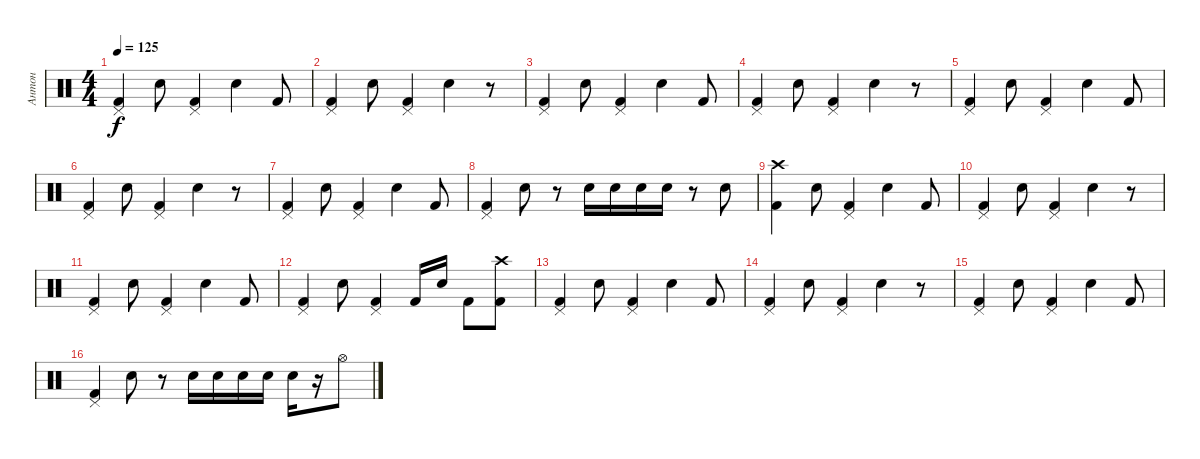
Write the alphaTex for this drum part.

\track ("Антон" "Антон") {instrument percussion}
\staff {score}
\articulation defaults
\ts (4 4)
\tempo 125
\clef neutral
\ks c
("Pedal Hi-Hat (hit)" "Kick (hit) 2").4{dy f} "Electric Snare (hit)".8 ("Pedal Hi-Hat (hit)" "Kick (hit) 2").4 "Electric Snare (hit)".4 "Kick (hit) 2".8 |
("Pedal Hi-Hat (hit)" "Kick (hit) 2").4 "Electric Snare (hit)".8 ("Pedal Hi-Hat (hit)" "Kick (hit) 2").4 "Electric Snare (hit)".4 r.8 |
("Pedal Hi-Hat (hit)" "Kick (hit) 2").4 "Electric Snare (hit)".8 ("Pedal Hi-Hat (hit)" "Kick (hit) 2").4 "Electric Snare (hit)".4 "Kick (hit) 2".8 |
("Pedal Hi-Hat (hit)" "Kick (hit) 2").4 "Electric Snare (hit)".8 ("Pedal Hi-Hat (hit)" "Kick (hit) 2").4 "Electric Snare (hit)".4 r.8 |
("Pedal Hi-Hat (hit)" "Kick (hit) 2").4 "Electric Snare (hit)".8 ("Pedal Hi-Hat (hit)" "Kick (hit) 2").4 "Electric Snare (hit)".4 "Kick (hit) 2".8 |
("Pedal Hi-Hat (hit)" "Kick (hit) 2").4 "Electric Snare (hit)".8 ("Pedal Hi-Hat (hit)" "Kick (hit) 2").4 "Electric Snare (hit)".4 r.8 |
("Pedal Hi-Hat (hit)" "Kick (hit) 2").4 "Electric Snare (hit)".8 ("Pedal Hi-Hat (hit)" "Kick (hit) 2").4 "Electric Snare (hit)".4 "Kick (hit) 2".8 |
("Pedal Hi-Hat (hit)" "Kick (hit) 2").4 "Electric Snare (hit)".8 r.8 "Electric Snare (hit)".16 "Electric Snare (hit)".16 "Electric Snare (hit)".16 "Electric Snare (hit)".16 r.8 "Electric Snare (hit)".8 |
("Crash high (hit)" "Kick (hit) 2").4 "Electric Snare (hit)".8 ("Pedal Hi-Hat (hit)" "Kick (hit) 2").4 "Electric Snare (hit)".4 "Kick (hit) 2".8 |
("Pedal Hi-Hat (hit)" "Kick (hit) 2").4 "Electric Snare (hit)".8 ("Pedal Hi-Hat (hit)" "Kick (hit) 2").4 "Electric Snare (hit)".4 r.8 |
("Pedal Hi-Hat (hit)" "Kick (hit) 2").4 "Electric Snare (hit)".8 ("Pedal Hi-Hat (hit)" "Kick (hit) 2").4 "Electric Snare (hit)".4 "Kick (hit) 2".8 |
("Pedal Hi-Hat (hit)" "Kick (hit) 2").4 "Electric Snare (hit)".8 ("Pedal Hi-Hat (hit)" "Kick (hit) 2").4 "Kick (hit) 2".16 "Electric Snare (hit)".16 "Kick (hit) 2".8 ("Crash high (hit)" "Kick (hit) 2").8 |
("Pedal Hi-Hat (hit)" "Kick (hit) 2").4 "Electric Snare (hit)".8 ("Pedal Hi-Hat (hit)" "Kick (hit) 2").4 "Electric Snare (hit)".4 "Kick (hit) 2".8 |
("Pedal Hi-Hat (hit)" "Kick (hit) 2").4 "Electric Snare (hit)".8 ("Pedal Hi-Hat (hit)" "Kick (hit) 2").4 "Electric Snare (hit)".4 r.8 |
("Pedal Hi-Hat (hit)" "Kick (hit) 2").4 "Electric Snare (hit)".8 ("Pedal Hi-Hat (hit)" "Kick (hit) 2").4 "Electric Snare (hit)".4 "Kick (hit) 2".8 |
("Pedal Hi-Hat (hit)" "Kick (hit) 2").4 "Electric Snare (hit)".8 r.8 "Electric Snare (hit)".16 "Electric Snare (hit)".16 "Electric Snare (hit)".16 "Electric Snare (hit)".16 "Electric Snare (hit)".16 r.16 "Hi-Hat (open)".8
